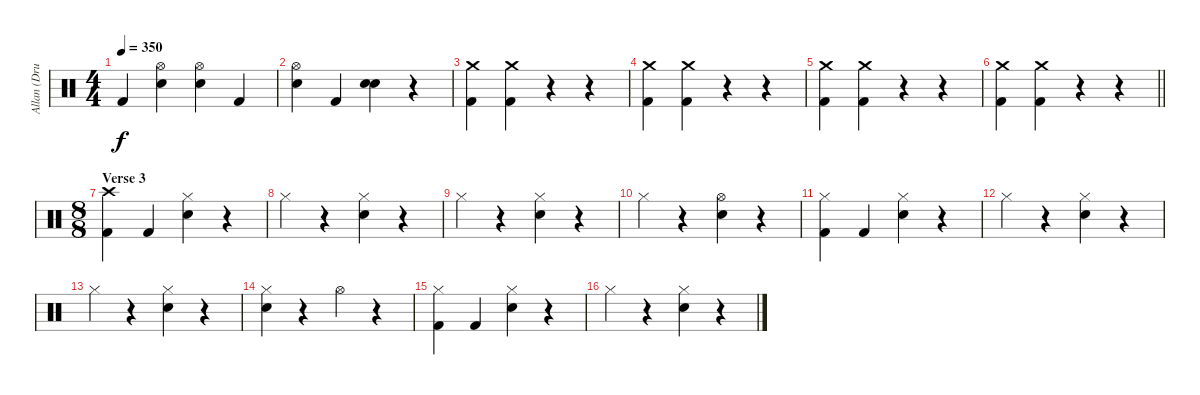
\track ("Allan (Drums)" "Allan (Dru") {solo instrument percussion}
\staff {score}
\articulation defaults
\ts (4 4)
\tempo 350
\clef neutral
\ks c "Kick (hit) 2".4{dy f}
("Hi-Hat (open)" "Snare (hit) 2").4 ("Hi-Hat (open)" "Snare (hit) 2").4 "Kick (hit) 2".4 |
("Hi-Hat (open)" "Snare (hit) 2").4 "Kick (hit) 2".4 ("Snare (hit) 2" "Snare (hit) 2").4 r.4 |
("Crash medium (hit)" "Kick (hit) 2").4 ("Crash medium (hit)" "Kick (hit) 2").4 r.4 r.4 |
("Crash medium (hit)" "Kick (hit) 2").4 ("Crash medium (hit)" "Kick (hit) 2").4 r.4 r.4 |
("Crash medium (hit)" "Kick (hit) 2").4 ("Crash medium (hit)" "Kick (hit) 2").4 r.4 r.4 |
\barLineRight lightlight
("Crash medium (hit)" "Kick (hit) 2").4 ("Crash medium (hit)" "Kick (hit) 2").4 r.4 r.4 |
\ts (8 8)
\section ("" "Verse 3")
("Crash high (hit)" "Kick (hit) 2").4 "Kick (hit) 2".4 ("Hi-Hat (closed)" "Snare (hit) 2").4 r.4 |
"Hi-Hat (closed)".4 r.4 ("Hi-Hat (closed)" "Snare (hit) 2").4 r.4 |
"Hi-Hat (closed)".4 r.4 ("Hi-Hat (closed)" "Snare (hit) 2").4 r.4 |
"Hi-Hat (closed)".4 r.4 ("Hi-Hat (open)" "Snare (hit) 2").4 r.4 |
("Hi-Hat (closed)" "Kick (hit) 2").4 "Kick (hit) 2".4 ("Hi-Hat (closed)" "Snare (hit) 2").4 r.4 |
"Hi-Hat (closed)".4 r.4 ("Hi-Hat (closed)" "Snare (hit) 2").4 r.4 |
"Hi-Hat (closed)".4 r.4 ("Hi-Hat (closed)" "Snare (hit) 2").4 r.4 |
("Hi-Hat (closed)" "Snare (hit) 2").4 r.4 "Hi-Hat (open)".4 r.4 |
("Hi-Hat (closed)" "Kick (hit) 2").4 "Kick (hit) 2".4 ("Hi-Hat (closed)" "Snare (hit) 2").4 r.4 |
"Hi-Hat (closed)".4 r.4 ("Hi-Hat (closed)" "Snare (hit) 2").4 r.4
